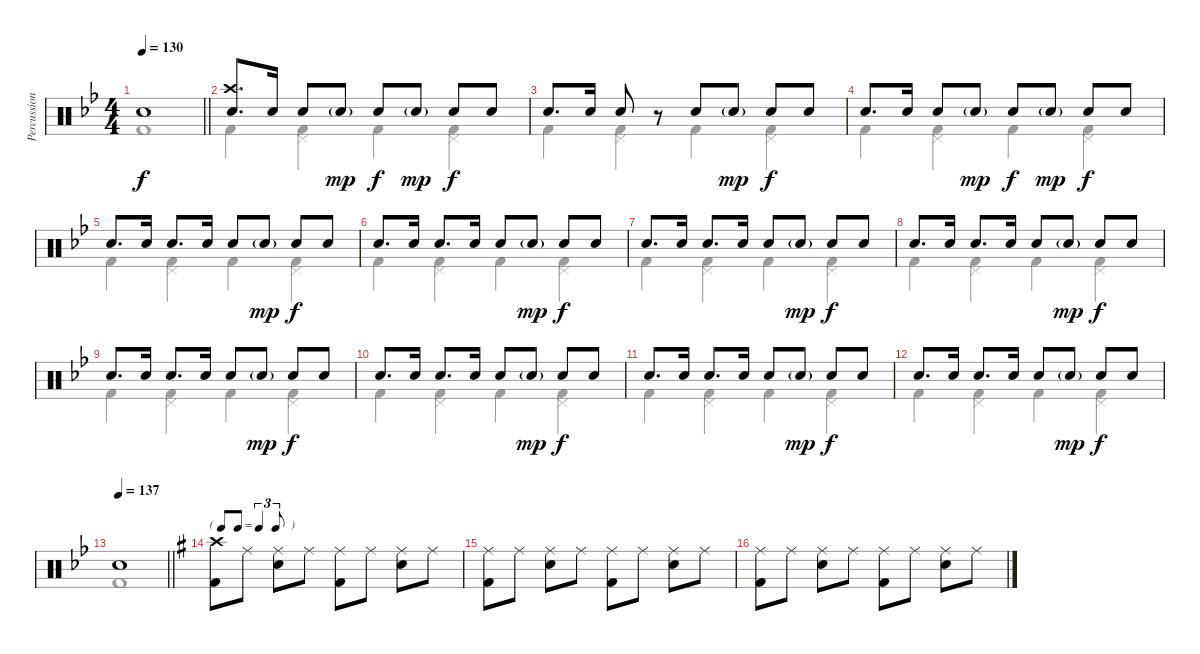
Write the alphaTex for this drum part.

\track ("Percussion" "Percussion") {instrument percussion}
\staff {score}
\articulation defaults
\voice
\ts (4 4)
\tempo 130
\clef neutral
\barLineRight lightlight
\ks gminor "Snare (hit) 2".1{dy f}
|
("Crash high (hit)" "Snare (hit) 2").8{d} "Snare (hit) 2".16 "Snare (hit) 2".8 "Snare (hit) 2"{g}.8{dy mp} "Snare (hit) 2".8{dy f} "Snare (hit) 2"{g}.8{dy mp} "Snare (hit) 2".8{dy f} "Snare (hit) 2".8 |
"Snare (hit) 2".8{d} "Snare (hit) 2".16 "Snare (hit) 2".8 r.8 "Snare (hit) 2".8 "Snare (hit) 2"{g}.8{dy mp} "Snare (hit) 2".8{dy f} "Snare (hit) 2".8 |
"Snare (hit) 2".8{d} "Snare (hit) 2".16 "Snare (hit) 2".8 "Snare (hit) 2"{g}.8{dy mp} "Snare (hit) 2".8{dy f} "Snare (hit) 2"{g}.8{dy mp} "Snare (hit) 2".8{dy f} "Snare (hit) 2".8 |
"Snare (hit) 2".8{d} "Snare (hit) 2".16 "Snare (hit) 2".8{d} "Snare (hit) 2".16 "Snare (hit) 2".8 "Snare (hit) 2"{g}.8{dy mp} "Snare (hit) 2".8{dy f} "Snare (hit) 2".8 |
"Snare (hit) 2".8{d} "Snare (hit) 2".16 "Snare (hit) 2".8{d} "Snare (hit) 2".16 "Snare (hit) 2".8 "Snare (hit) 2"{g}.8{dy mp} "Snare (hit) 2".8{dy f} "Snare (hit) 2".8 |
"Snare (hit) 2".8{d} "Snare (hit) 2".16 "Snare (hit) 2".8{d} "Snare (hit) 2".16 "Snare (hit) 2".8 "Snare (hit) 2"{g}.8{dy mp} "Snare (hit) 2".8{dy f} "Snare (hit) 2".8 |
"Snare (hit) 2".8{d} "Snare (hit) 2".16 "Snare (hit) 2".8{d} "Snare (hit) 2".16 "Snare (hit) 2".8 "Snare (hit) 2"{g}.8{dy mp} "Snare (hit) 2".8{dy f} "Snare (hit) 2".8 |
"Snare (hit) 2".8{d} "Snare (hit) 2".16 "Snare (hit) 2".8{d} "Snare (hit) 2".16 "Snare (hit) 2".8 "Snare (hit) 2"{g}.8{dy mp} "Snare (hit) 2".8{dy f} "Snare (hit) 2".8 |
"Snare (hit) 2".8{d} "Snare (hit) 2".16 "Snare (hit) 2".8{d} "Snare (hit) 2".16 "Snare (hit) 2".8 "Snare (hit) 2"{g}.8{dy mp} "Snare (hit) 2".8{dy f} "Snare (hit) 2".8 |
"Snare (hit) 2".8{d} "Snare (hit) 2".16 "Snare (hit) 2".8{d} "Snare (hit) 2".16 "Snare (hit) 2".8 "Snare (hit) 2"{g}.8{dy mp} "Snare (hit) 2".8{dy f} "Snare (hit) 2".8 |
"Snare (hit) 2".8{d} "Snare (hit) 2".16 "Snare (hit) 2".8{d} "Snare (hit) 2".16 "Snare (hit) 2".8 "Snare (hit) 2"{g}.8{dy mp} "Snare (hit) 2".8{dy f} "Snare (hit) 2".8 |
\tempo 137
\barLineRight lightlight "Snare (hit) 2".1
|
\tf triplet8th
\ks g
("Crash high (hit)" "Kick (hit) 2").8 "Ride (middle)".8 ("Ride (middle)" "Snare (hit) 2").8 "Ride (middle)".8 ("Ride (middle)" "Kick (hit) 2").8 "Ride (middle)".8 ("Ride (middle)" "Snare (hit) 2").8 "Ride (middle)".8 |
("Ride (middle)" "Kick (hit) 2").8 "Ride (middle)".8 ("Ride (middle)" "Snare (hit) 2").8 "Ride (middle)".8 ("Ride (middle)" "Kick (hit) 2").8 "Ride (middle)".8 ("Ride (middle)" "Snare (hit) 2").8 "Ride (middle)".8 |
("Ride (middle)" "Kick (hit) 2").8 "Ride (middle)".8 ("Ride (middle)" "Snare (hit) 2").8 "Ride (middle)".8 ("Ride (middle)" "Kick (hit) 2").8 "Ride (middle)".8 ("Ride (middle)" "Snare (hit) 2").8 "Ride (middle)".8
\voice
\clef neutral
\ottava regular
\simile none
\barLineRight lightlight
\ks gminor "Kick (hit) 2".1{dy f}
|
"Kick (hit) 2".4 ("Kick (hit) 2" "Pedal Hi-Hat (hit)").4 "Kick (hit) 2".4 ("Kick (hit) 2" "Pedal Hi-Hat (hit)").4 |
"Kick (hit) 2".4 ("Kick (hit) 2" "Pedal Hi-Hat (hit)").4 "Kick (hit) 2".4 ("Kick (hit) 2" "Pedal Hi-Hat (hit)").4 |
"Kick (hit) 2".4 ("Kick (hit) 2" "Pedal Hi-Hat (hit)").4 "Kick (hit) 2".4 ("Kick (hit) 2" "Pedal Hi-Hat (hit)").4 |
"Kick (hit) 2".4 ("Kick (hit) 2" "Pedal Hi-Hat (hit)").4 "Kick (hit) 2".4 ("Kick (hit) 2" "Pedal Hi-Hat (hit)").4 |
"Kick (hit) 2".4 ("Kick (hit) 2" "Pedal Hi-Hat (hit)").4 "Kick (hit) 2".4 ("Kick (hit) 2" "Pedal Hi-Hat (hit)").4 |
"Kick (hit) 2".4 ("Kick (hit) 2" "Pedal Hi-Hat (hit)").4 "Kick (hit) 2".4 ("Kick (hit) 2" "Pedal Hi-Hat (hit)").4 |
"Kick (hit) 2".4 ("Kick (hit) 2" "Pedal Hi-Hat (hit)").4 "Kick (hit) 2".4 ("Kick (hit) 2" "Pedal Hi-Hat (hit)").4 |
"Kick (hit) 2".4 ("Kick (hit) 2" "Pedal Hi-Hat (hit)").4 "Kick (hit) 2".4 ("Kick (hit) 2" "Pedal Hi-Hat (hit)").4 |
"Kick (hit) 2".4 ("Kick (hit) 2" "Pedal Hi-Hat (hit)").4 "Kick (hit) 2".4 ("Kick (hit) 2" "Pedal Hi-Hat (hit)").4 |
"Kick (hit) 2".4 ("Kick (hit) 2" "Pedal Hi-Hat (hit)").4 "Kick (hit) 2".4 ("Kick (hit) 2" "Pedal Hi-Hat (hit)").4 |
"Kick (hit) 2".4 ("Kick (hit) 2" "Pedal Hi-Hat (hit)").4 "Kick (hit) 2".4 ("Kick (hit) 2" "Pedal Hi-Hat (hit)").4 |
\barLineRight lightlight "Kick (hit) 2".1
|
\ks g
|
|
